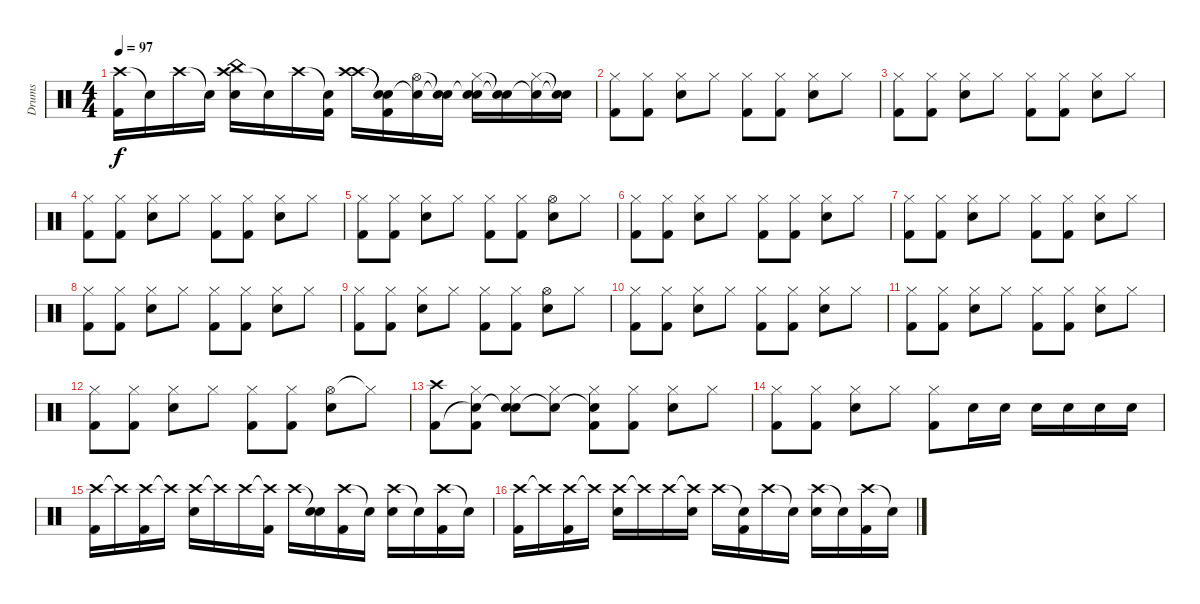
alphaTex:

\track ("Drums" "Drums") {instrument percussion}
\staff {score}
\articulation defaults
\ts (4 4)
\tempo 97
\clef neutral
\ks aminor
("Crash high (hit)" "Kick (hit) 2").16{dy f} "Snare (hit)"{t}.16 "Crash high (hit)".16 "Snare (hit)"{t}.16 ("Crash high (hit)" "China (hit)" "Snare (hit) 2").16 "Snare (hit)"{t}.16 "Crash high (hit)".16 ("Snare (hit)"{t} "Kick (hit) 2").16 ("Crash high (hit)" "Crash high (hit)").16 ("Snare (hit)"{t} "Snare (hit)"{t} "Kick (hit) 2").16 ("Hi-Hat (open)" "Snare (hit)"{t}).16 ("Snare (hit)"{t} "Snare (hit)"{t}).16 ("Hi-Hat (closed)" "Snare (hit)"{t} "Snare (hit) 2").16 ("Snare (hit)"{t} "Snare (hit)"{t}).16 ("Hi-Hat (closed)" "Snare (hit)"{t}).16 ("Snare (hit)"{t} "Snare (hit)"{t}).16 |
("Hi-Hat (closed)" "Kick (hit) 2").8 ("Hi-Hat (closed)" "Kick (hit) 2").8 ("Hi-Hat (closed)" "Snare (hit) 2").8 "Hi-Hat (closed)".8 ("Hi-Hat (closed)" "Kick (hit) 2").8 ("Hi-Hat (closed)" "Kick (hit) 2").8 ("Hi-Hat (closed)" "Snare (hit) 2").8 "Hi-Hat (closed)".8 |
("Hi-Hat (closed)" "Kick (hit) 2").8 ("Hi-Hat (closed)" "Kick (hit) 2").8 ("Hi-Hat (closed)" "Snare (hit) 2").8 "Hi-Hat (closed)".8 ("Hi-Hat (closed)" "Kick (hit) 2").8 ("Hi-Hat (closed)" "Kick (hit) 2").8 ("Hi-Hat (closed)" "Snare (hit) 2").8 "Hi-Hat (closed)".8 |
("Hi-Hat (closed)" "Kick (hit) 2").8 ("Hi-Hat (closed)" "Kick (hit) 2").8 ("Hi-Hat (closed)" "Snare (hit) 2").8 "Hi-Hat (closed)".8 ("Hi-Hat (closed)" "Kick (hit) 2").8 ("Hi-Hat (closed)" "Kick (hit) 2").8 ("Hi-Hat (closed)" "Snare (hit) 2").8 "Hi-Hat (closed)".8 |
("Hi-Hat (closed)" "Kick (hit) 2").8 ("Hi-Hat (closed)" "Kick (hit) 2").8 ("Hi-Hat (closed)" "Snare (hit) 2").8 "Hi-Hat (closed)".8 ("Hi-Hat (closed)" "Kick (hit) 2").8 ("Hi-Hat (closed)" "Kick (hit) 2").8 ("Hi-Hat (open)" "Snare (hit) 2").8 "Hi-Hat (closed)".8 |
("Hi-Hat (closed)" "Kick (hit) 2").8 ("Hi-Hat (closed)" "Kick (hit) 2").8 ("Hi-Hat (closed)" "Snare (hit) 2").8 "Hi-Hat (closed)".8 ("Hi-Hat (closed)" "Kick (hit) 2").8 ("Hi-Hat (closed)" "Kick (hit) 2").8 ("Hi-Hat (closed)" "Snare (hit) 2").8 "Hi-Hat (closed)".8 |
("Hi-Hat (closed)" "Kick (hit) 2").8 ("Hi-Hat (closed)" "Kick (hit) 2").8 ("Hi-Hat (closed)" "Snare (hit) 2").8 "Hi-Hat (closed)".8 ("Hi-Hat (closed)" "Kick (hit) 2").8 ("Hi-Hat (closed)" "Kick (hit) 2").8 ("Hi-Hat (closed)" "Snare (hit) 2").8 "Hi-Hat (closed)".8 |
("Hi-Hat (closed)" "Kick (hit) 2").8 ("Hi-Hat (closed)" "Kick (hit) 2").8 ("Hi-Hat (closed)" "Snare (hit) 2").8 "Hi-Hat (closed)".8 ("Hi-Hat (closed)" "Kick (hit) 2").8 ("Hi-Hat (closed)" "Kick (hit) 2").8 ("Hi-Hat (closed)" "Snare (hit) 2").8 "Hi-Hat (closed)".8 |
("Hi-Hat (closed)" "Kick (hit) 2").8 ("Hi-Hat (closed)" "Kick (hit) 2").8 ("Hi-Hat (closed)" "Snare (hit) 2").8 "Hi-Hat (closed)".8 ("Hi-Hat (closed)" "Kick (hit) 2").8 ("Hi-Hat (closed)" "Kick (hit) 2").8 ("Hi-Hat (open)" "Snare (hit) 2").8 "Hi-Hat (closed)".8 |
("Hi-Hat (closed)" "Kick (hit) 2").8 ("Hi-Hat (closed)" "Kick (hit) 2").8 ("Hi-Hat (closed)" "Snare (hit) 2").8 "Hi-Hat (closed)".8 ("Hi-Hat (closed)" "Kick (hit) 2").8 ("Hi-Hat (closed)" "Kick (hit) 2").8 ("Hi-Hat (closed)" "Snare (hit) 2").8 "Hi-Hat (closed)".8 |
("Hi-Hat (closed)" "Kick (hit) 2").8 ("Hi-Hat (closed)" "Kick (hit) 2").8 ("Hi-Hat (closed)" "Snare (hit) 2").8 "Hi-Hat (closed)".8 ("Hi-Hat (closed)" "Kick (hit) 2").8 ("Hi-Hat (closed)" "Kick (hit) 2").8 ("Hi-Hat (closed)" "Snare (hit) 2").8 "Hi-Hat (closed)".8 |
("Hi-Hat (closed)" "Kick (hit) 2").8 ("Hi-Hat (closed)" "Kick (hit) 2").8 ("Hi-Hat (closed)" "Snare (hit) 2").8 "Hi-Hat (closed)".8 ("Hi-Hat (closed)" "Kick (hit) 2").8 ("Hi-Hat (closed)" "Kick (hit) 2").8 ("Hi-Hat (open)" "Snare (hit) 2").8 "Hi-Hat (closed)"{t}.8 |
("Crash high (hit)" "Kick (hit) 2").8 ("Hi-Hat (closed)" "Snare (hit)"{t} "Kick (hit) 2").8 ("Hi-Hat (closed)" "Snare (hit)"{t} "Snare (hit) 2").8 ("Hi-Hat (closed)" "Snare (hit)"{t}).8 ("Hi-Hat (closed)" "Snare (hit)"{t} "Kick (hit) 2").8 ("Hi-Hat (closed)" "Kick (hit) 2").8 ("Hi-Hat (closed)" "Snare (hit) 2").8 "Hi-Hat (closed)".8 |
("Hi-Hat (closed)" "Kick (hit) 2").8 ("Hi-Hat (closed)" "Kick (hit) 2").8 ("Hi-Hat (closed)" "Snare (hit) 2").8 "Hi-Hat (closed)".8 ("Hi-Hat (closed)" "Kick (hit) 2").8 "Snare (hit) 2".16 "Snare (hit) 2".16 "Snare (hit) 2".16 "Snare (hit) 2".16 "Snare (hit) 2".16 "Snare (hit) 2".16 |
("Crash high (hit)" "Kick (hit) 2").16 "Crash high (hit)"{t}.16 ("Crash high (hit)" "Kick (hit) 2").16 "Crash high (hit)"{t}.16 ("Crash high (hit)" "Snare (hit) 2").16 "Crash high (hit)"{t}.16 "Crash high (hit)".16 ("Crash high (hit)"{t} "Kick (hit) 2").16 "Crash high (hit)".16 ("Snare (hit)"{t} "Snare (hit) 2").16 ("Crash high (hit)" "Kick (hit) 2").16 "Snare (hit)"{t}.16 ("Crash high (hit)" "Snare (hit) 2").16 "Snare (hit)"{t}.16 ("Crash high (hit)" "Kick (hit) 2").16 "Snare (hit)"{t}.16 |
("Crash high (hit)" "Kick (hit) 2").16 "Crash high (hit)"{t}.16 ("Crash high (hit)" "Kick (hit) 2").16 "Crash high (hit)"{t}.16 ("Crash high (hit)" "Snare (hit) 2").16 "Crash high (hit)"{t}.16 "Crash high (hit)".16 ("Crash high (hit)"{t} "Snare (hit) 2").16 "Crash high (hit)".16 ("Snare (hit)"{t} "Kick (hit) 2").16 "Crash high (hit)".16 "Snare (hit)"{t}.16 ("Crash high (hit)" "Snare (hit) 2").16 "Snare (hit)"{t}.16 ("Crash high (hit)" "Kick (hit) 2").16 "Snare (hit)"{t}.16
